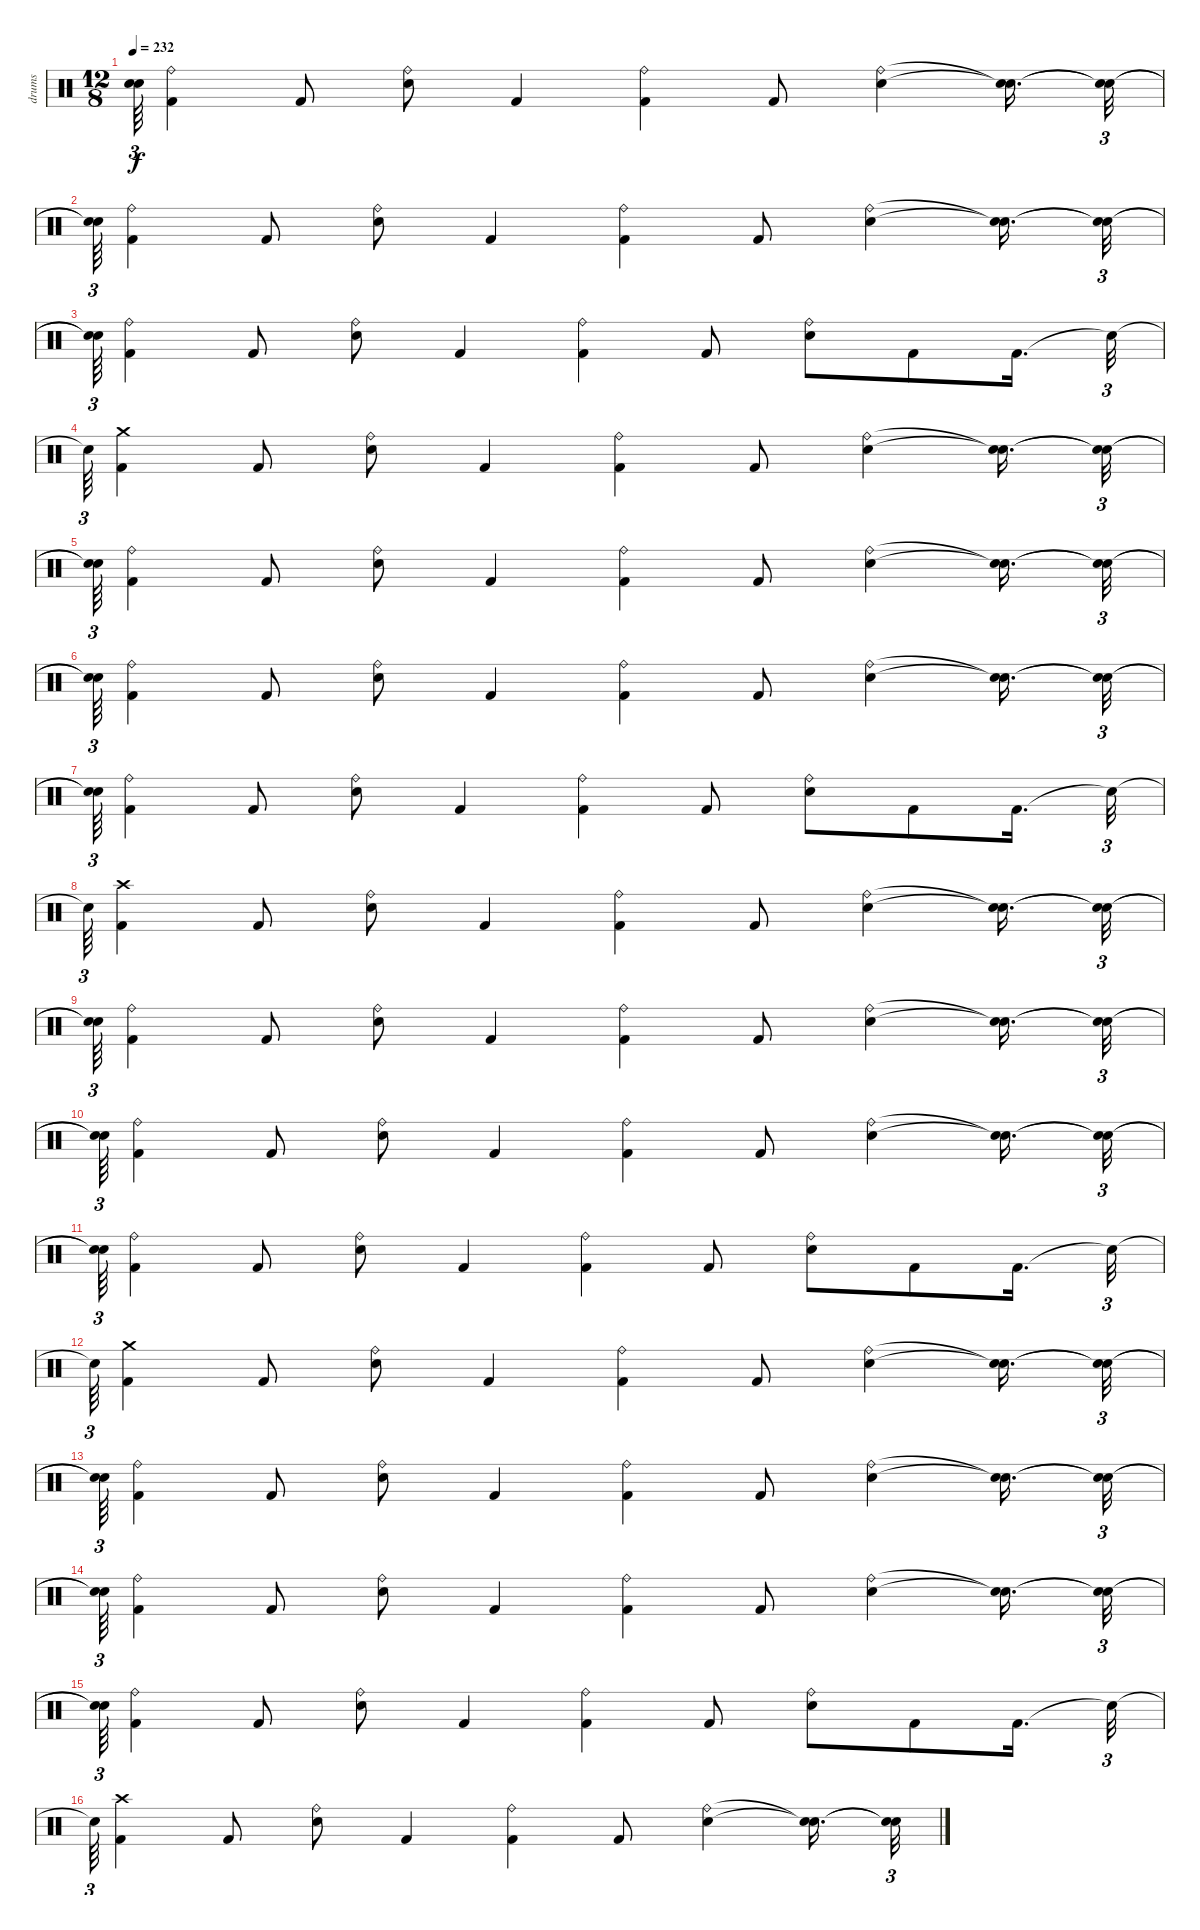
\track ("drums" "drums") {instrument percussion}
\staff {score}
\articulation defaults
\ts (12 8)
\tempo 232
\clef neutral
\ks c
("Snare (hit)"{t} "Snare (hit)"{t}).64{tu (3 2) dy f} ("Ride (bell)" "Kick (hit) 2").4 "Kick (hit) 2".8 ("Ride (bell)" "Electric Snare (hit)").8 "Kick (hit) 2".4 ("Ride (bell)" "Kick (hit) 2").4 "Kick (hit) 2".8 ("Ride (bell)" "Electric Snare (hit)").4 ("Snare (hit)"{t} "Snare (hit)"{t}).16{d} ("Snare (hit)"{t} "Snare (hit)"{t}).32{tu (3 2)} |
("Snare (hit)"{t} "Snare (hit)"{t}).64{tu (3 2)} ("Kick (hit) 2" "Ride (bell)").4 "Kick (hit) 2".8 ("Ride (bell)" "Electric Snare (hit)").8 "Kick (hit) 2".4 ("Kick (hit) 2" "Ride (bell)").4 "Kick (hit) 2".8 ("Ride (bell)" "Electric Snare (hit)").4 ("Snare (hit)"{t} "Snare (hit)"{t}).16{d} ("Snare (hit)"{t} "Snare (hit)"{t}).32{tu (3 2)} |
("Snare (hit)"{t} "Snare (hit)"{t}).64{tu (3 2)} ("Kick (hit) 2" "Ride (bell)").4 "Kick (hit) 2".8 ("Ride (bell)" "Electric Snare (hit)").8 "Kick (hit) 2".4 ("Ride (bell)" "Kick (hit) 2").4 "Kick (hit) 2".8 ("Ride (bell)" "Electric Snare (hit)").8 "Kick (hit) 2".8 "Kick (hit) 2".16{d} "Snare (hit)"{t}.32{tu (3 2)} |
"Snare (hit)"{t}.64{tu (3 2)} ("Crash medium (hit)" "Kick (hit) 2").4 "Kick (hit) 2".8 ("Ride (bell)" "Electric Snare (hit)").8 "Kick (hit) 2".4 ("Ride (bell)" "Kick (hit) 2").4 "Kick (hit) 2".8 ("Ride (bell)" "Electric Snare (hit)").4 ("Snare (hit)"{t} "Snare (hit)"{t}).16{d} ("Snare (hit)"{t} "Snare (hit)"{t}).32{tu (3 2)} |
("Snare (hit)"{t} "Snare (hit)"{t}).64{tu (3 2)} ("Ride (bell)" "Kick (hit) 2").4 "Kick (hit) 2".8 ("Ride (bell)" "Electric Snare (hit)").8 "Kick (hit) 2".4 ("Ride (bell)" "Kick (hit) 2").4 "Kick (hit) 2".8 ("Ride (bell)" "Electric Snare (hit)").4 ("Snare (hit)"{t} "Snare (hit)"{t}).16{d} ("Snare (hit)"{t} "Snare (hit)"{t}).32{tu (3 2)} |
("Snare (hit)"{t} "Snare (hit)"{t}).64{tu (3 2)} ("Kick (hit) 2" "Ride (bell)").4 "Kick (hit) 2".8 ("Ride (bell)" "Electric Snare (hit)").8 "Kick (hit) 2".4 ("Kick (hit) 2" "Ride (bell)").4 "Kick (hit) 2".8 ("Ride (bell)" "Electric Snare (hit)").4 ("Snare (hit)"{t} "Snare (hit)"{t}).16{d} ("Snare (hit)"{t} "Snare (hit)"{t}).32{tu (3 2)} |
("Snare (hit)"{t} "Snare (hit)"{t}).64{tu (3 2)} ("Kick (hit) 2" "Ride (bell)").4 "Kick (hit) 2".8 ("Ride (bell)" "Electric Snare (hit)").8 "Kick (hit) 2".4 ("Ride (bell)" "Kick (hit) 2").4 "Kick (hit) 2".8 ("Ride (bell)" "Electric Snare (hit)").8 "Kick (hit) 2".8 "Kick (hit) 2".16{d} "Snare (hit)"{t}.32{tu (3 2)} |
"Snare (hit)"{t}.64{tu (3 2)} ("Crash high (hit)" "Kick (hit) 2").4 "Kick (hit) 2".8 ("Ride (bell)" "Electric Snare (hit)").8 "Kick (hit) 2".4 ("Ride (bell)" "Kick (hit) 2").4 "Kick (hit) 2".8 ("Ride (bell)" "Electric Snare (hit)").4 ("Snare (hit)"{t} "Snare (hit)"{t}).16{d} ("Snare (hit)"{t} "Snare (hit)"{t}).32{tu (3 2)} |
("Snare (hit)"{t} "Snare (hit)"{t}).64{tu (3 2)} ("Ride (bell)" "Kick (hit) 2").4 "Kick (hit) 2".8 ("Ride (bell)" "Electric Snare (hit)").8 "Kick (hit) 2".4 ("Ride (bell)" "Kick (hit) 2").4 "Kick (hit) 2".8 ("Ride (bell)" "Electric Snare (hit)").4 ("Snare (hit)"{t} "Snare (hit)"{t}).16{d} ("Snare (hit)"{t} "Snare (hit)"{t}).32{tu (3 2)} |
("Snare (hit)"{t} "Snare (hit)"{t}).64{tu (3 2)} ("Kick (hit) 2" "Ride (bell)").4 "Kick (hit) 2".8 ("Ride (bell)" "Electric Snare (hit)").8 "Kick (hit) 2".4 ("Kick (hit) 2" "Ride (bell)").4 "Kick (hit) 2".8 ("Ride (bell)" "Electric Snare (hit)").4 ("Snare (hit)"{t} "Snare (hit)"{t}).16{d} ("Snare (hit)"{t} "Snare (hit)"{t}).32{tu (3 2)} |
("Snare (hit)"{t} "Snare (hit)"{t}).64{tu (3 2)} ("Kick (hit) 2" "Ride (bell)").4 "Kick (hit) 2".8 ("Ride (bell)" "Electric Snare (hit)").8 "Kick (hit) 2".4 ("Ride (bell)" "Kick (hit) 2").4 "Kick (hit) 2".8 ("Ride (bell)" "Electric Snare (hit)").8 "Kick (hit) 2".8 "Kick (hit) 2".16{d} "Snare (hit)"{t}.32{tu (3 2)} |
"Snare (hit)"{t}.64{tu (3 2)} ("Crash medium (hit)" "Kick (hit) 2").4 "Kick (hit) 2".8 ("Ride (bell)" "Electric Snare (hit)").8 "Kick (hit) 2".4 ("Ride (bell)" "Kick (hit) 2").4 "Kick (hit) 2".8 ("Ride (bell)" "Electric Snare (hit)").4 ("Snare (hit)"{t} "Snare (hit)"{t}).16{d} ("Snare (hit)"{t} "Snare (hit)"{t}).32{tu (3 2)} |
("Snare (hit)"{t} "Snare (hit)"{t}).64{tu (3 2)} ("Ride (bell)" "Kick (hit) 2").4 "Kick (hit) 2".8 ("Ride (bell)" "Electric Snare (hit)").8 "Kick (hit) 2".4 ("Ride (bell)" "Kick (hit) 2").4 "Kick (hit) 2".8 ("Ride (bell)" "Electric Snare (hit)").4 ("Snare (hit)"{t} "Snare (hit)"{t}).16{d} ("Snare (hit)"{t} "Snare (hit)"{t}).32{tu (3 2)} |
("Snare (hit)"{t} "Snare (hit)"{t}).64{tu (3 2)} ("Kick (hit) 2" "Ride (bell)").4 "Kick (hit) 2".8 ("Ride (bell)" "Electric Snare (hit)").8 "Kick (hit) 2".4 ("Kick (hit) 2" "Ride (bell)").4 "Kick (hit) 2".8 ("Ride (bell)" "Electric Snare (hit)").4 ("Snare (hit)"{t} "Snare (hit)"{t}).16{d} ("Snare (hit)"{t} "Snare (hit)"{t}).32{tu (3 2)} |
("Snare (hit)"{t} "Snare (hit)"{t}).64{tu (3 2)} ("Kick (hit) 2" "Ride (bell)").4 "Kick (hit) 2".8 ("Ride (bell)" "Electric Snare (hit)").8 "Kick (hit) 2".4 ("Ride (bell)" "Kick (hit) 2").4 "Kick (hit) 2".8 ("Ride (bell)" "Electric Snare (hit)").8 "Kick (hit) 2".8 "Kick (hit) 2".16{d} "Snare (hit)"{t}.32{tu (3 2)} |
"Snare (hit)"{t}.64{tu (3 2)} ("Crash high (hit)" "Kick (hit) 2").4 "Kick (hit) 2".8 ("Ride (bell)" "Electric Snare (hit)").8 "Kick (hit) 2".4 ("Ride (bell)" "Kick (hit) 2").4 "Kick (hit) 2".8 ("Ride (bell)" "Electric Snare (hit)").4 ("Snare (hit)"{t} "Snare (hit)"{t}).16{d} ("Snare (hit)"{t} "Snare (hit)"{t}).32{tu (3 2)}
